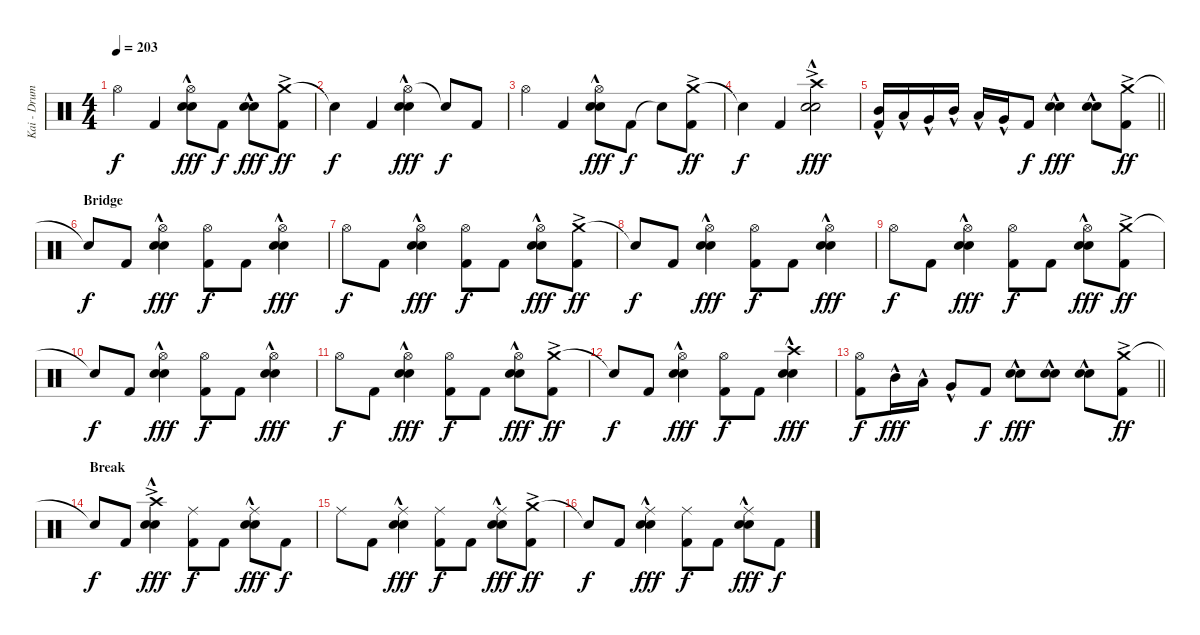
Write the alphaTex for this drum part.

\track ("Kai - Drums" "Kai - Drum") {instrument percussion}
\staff {score}
\articulation defaults
\ts (4 4)
\tempo 203
\clef neutral
\ks c "Hi-Hat (open)".4{dy f} "Kick (hit) 2".4
("Hi-Hat (open)" "Electric Snare (hit)"{hac} "Snare (hit) 2"{hac}).8{dy fff} "Kick (hit) 2".8{dy f} ("Electric Snare (hit)"{hac} "Snare (hit) 2"{hac}).8{dy fff} ("Crash medium (hit)"{ac} "Kick (hit) 2").8{dy ff} |
"Snare (hit)"{t}.4{dy f} "Kick (hit) 2".4 ("Hi-Hat (open)" "Electric Snare (hit)"{hac} "Snare (hit) 2"{hac}).4{dy fff} "Snare (hit)"{t}.8{dy f} "Kick (hit) 2".8 |
"Hi-Hat (open)".4 "Kick (hit) 2".4 ("Hi-Hat (open)" "Electric Snare (hit)"{hac} "Snare (hit) 2"{hac}).8{dy fff} "Kick (hit) 2".8{dy f} "Snare (hit)"{t}.8 ("Crash medium (hit)"{ac} "Kick (hit) 2").8{dy ff} |
"Snare (hit)"{t}.4{dy f} "Kick (hit) 2".4 ("Crash high (hit)"{ac} "Electric Snare (hit)"{hac} "Snare (hit) 2"{hac}).2{dy fff} |
\barLineRight lightlight
("Mid Tom (hit)"{hac} "Kick (hit) 2").16 "Low Tom (hit)"{hac}.16 "Very Low Tom (hit)"{hac}.16 "Mid Tom (hit)"{hac}.16 "Low Tom (hit)"{hac}.16 "Very Low Tom (hit)"{hac}.16 "Kick (hit) 2".8{dy f} ("Electric Snare (hit)" "Snare (hit) 2"{hac}).4{dy fff} ("Electric Snare (hit)" "Snare (hit) 2"{hac}).8 ("Crash medium (hit)"{ac} "Kick (hit) 2").8{dy ff} |
\section ("" "Bridge")
"Snare (hit)"{t}.8{dy f} "Kick (hit) 2".8 ("Hi-Hat (open)" "Electric Snare (hit)"{hac} "Snare (hit) 2"{hac}).4{dy fff} ("Hi-Hat (open)" "Kick (hit) 2").8{dy f} "Kick (hit) 2".8 ("Hi-Hat (open)" "Electric Snare (hit)"{hac} "Snare (hit) 2"{hac}).4{dy fff} |
"Hi-Hat (open)".8{dy f} "Kick (hit) 2".8 ("Hi-Hat (open)" "Electric Snare (hit)"{hac} "Snare (hit) 2"{hac}).4{dy fff} ("Hi-Hat (open)" "Kick (hit) 2").8{dy f} "Kick (hit) 2".8 ("Hi-Hat (open)" "Electric Snare (hit)"{hac} "Snare (hit) 2"{hac}).8{dy fff} ("Crash medium (hit)"{ac} "Kick (hit) 2").8{dy ff} |
"Snare (hit)"{t}.8{dy f} "Kick (hit) 2".8 ("Hi-Hat (open)" "Electric Snare (hit)"{hac} "Snare (hit) 2"{hac}).4{dy fff} ("Hi-Hat (open)" "Kick (hit) 2").8{dy f} "Kick (hit) 2".8 ("Hi-Hat (open)" "Electric Snare (hit)"{hac} "Snare (hit) 2"{hac}).4{dy fff} |
"Hi-Hat (open)".8{dy f} "Kick (hit) 2".8 ("Hi-Hat (open)" "Electric Snare (hit)"{hac} "Snare (hit) 2"{hac}).4{dy fff} ("Hi-Hat (open)" "Kick (hit) 2").8{dy f} "Kick (hit) 2".8 ("Hi-Hat (open)" "Electric Snare (hit)"{hac} "Snare (hit) 2"{hac}).8{dy fff} ("Crash medium (hit)"{ac} "Kick (hit) 2").8{dy ff} |
"Snare (hit)"{t}.8{dy f} "Kick (hit) 2".8 ("Hi-Hat (open)" "Electric Snare (hit)"{hac} "Snare (hit) 2"{hac}).4{dy fff} ("Hi-Hat (open)" "Kick (hit) 2").8{dy f} "Kick (hit) 2".8 ("Hi-Hat (open)" "Electric Snare (hit)"{hac} "Snare (hit) 2"{hac}).4{dy fff} |
"Hi-Hat (open)".8{dy f} "Kick (hit) 2".8 ("Hi-Hat (open)" "Electric Snare (hit)"{hac} "Snare (hit) 2"{hac}).4{dy fff} ("Hi-Hat (open)" "Kick (hit) 2").8{dy f} "Kick (hit) 2".8 ("Hi-Hat (open)" "Electric Snare (hit)"{hac} "Snare (hit) 2"{hac}).8{dy fff} ("Crash medium (hit)"{ac} "Kick (hit) 2").8{dy ff} |
"Snare (hit)"{t}.8{dy f} "Kick (hit) 2".8 ("Hi-Hat (open)" "Electric Snare (hit)"{hac} "Snare (hit) 2"{hac}).4{dy fff} ("Hi-Hat (open)" "Kick (hit) 2").8{dy f} "Kick (hit) 2".8 ("Crash high (hit)" "Electric Snare (hit)"{hac} "Snare (hit) 2"{hac}).4{dy fff} |
\barLineRight lightlight
("Hi-Hat (open)" "Kick (hit) 2").8{dy f} "Mid Tom (hit)"{hac}.16{dy fff} "Low Tom (hit)"{hac}.16 "Very Low Tom (hit)"{hac}.8 "Kick (hit) 2".8{dy f} ("Electric Snare (hit)"{hac} "Snare (hit) 2"{hac}).8{dy fff} ("Electric Snare (hit)"{hac} "Snare (hit) 2"{hac}).8 ("Electric Snare (hit)"{hac} "Snare (hit) 2"{hac}).8 ("Crash medium (hit)"{ac} "Kick (hit) 2").8{dy ff} |
\section ("" "Break")
"Snare (hit)"{t}.8{dy f} "Kick (hit) 2".8 ("Crash high (hit)"{ac} "Electric Snare (hit)"{hac} "Snare (hit) 2"{hac}).4{dy fff} ("Ride (middle)" "Kick (hit) 2").8{dy f} "Kick (hit) 2".8 ("Ride (middle)" "Electric Snare (hit)"{hac} "Snare (hit) 2"{hac}).8{dy fff} "Kick (hit) 2".8{dy f} |
"Ride (middle)".8 "Kick (hit) 2".8 ("Ride (middle)" "Electric Snare (hit)"{hac} "Snare (hit) 2"{hac}).4{dy fff} ("Ride (middle)" "Kick (hit) 2").8{dy f} "Kick (hit) 2".8 ("Ride (middle)" "Electric Snare (hit)"{hac} "Snare (hit) 2"{hac}).8{dy fff} ("Crash medium (hit)"{ac} "Kick (hit) 2").8{dy ff} |
"Snare (hit)"{t}.8{dy f} "Kick (hit) 2".8 ("Ride (middle)" "Electric Snare (hit)"{hac} "Snare (hit) 2"{hac}).4{dy fff} ("Ride (middle)" "Kick (hit) 2").8{dy f} "Kick (hit) 2".8 ("Ride (middle)" "Electric Snare (hit)"{hac} "Snare (hit) 2"{hac}).8{dy fff} "Kick (hit) 2".8{dy f}
